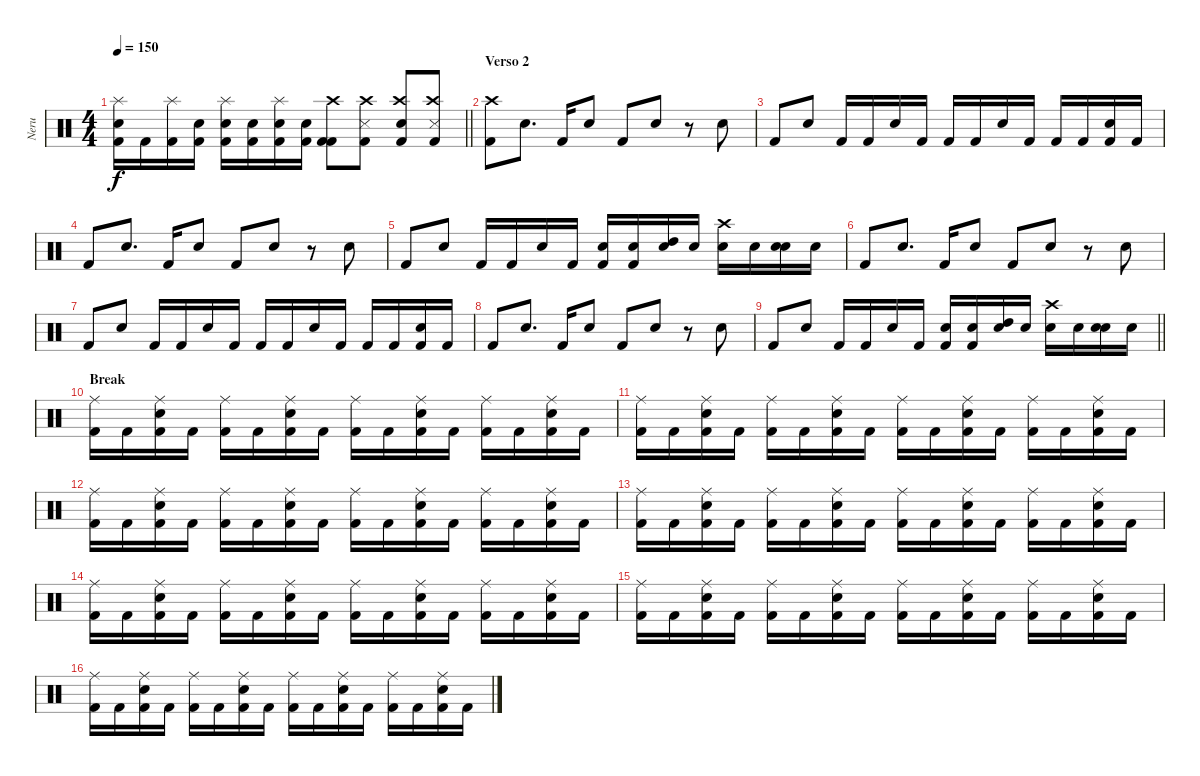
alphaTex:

\track ("Neru" "Neru") {instrument percussion}
\staff {score}
\articulation defaults
\ts (4 4)
\tempo 150
\clef neutral
\barLineRight lightlight
\ks c
("Kick (hit) 2" "Electric Snare (hit)" "Splash (hit)").16{dy f} "Kick (hit) 2".16 ("Kick (hit) 2" "Splash (hit)").16 ("Kick (hit) 2" "Electric Snare (hit)").16 ("Kick (hit) 2" "Electric Snare (hit)" "Splash (hit)").16 ("Kick (hit) 2" "Electric Snare (hit)").16 ("Kick (hit) 2" "Electric Snare (hit)" "Splash (hit)").16 ("Kick (hit) 2" "Electric Snare (hit)").16 ("Kick (hit) 2" "Kick (hit) 2" "Crash high (hit)").8 ("Kick (hit) 2" "Snare (side stick) 3" "Crash high (hit)").8 ("Kick (hit) 2" "Snare (hit) 2" "Crash high (hit)").8 ("Kick (hit) 2" "Snare (side stick) 3" "Crash high (hit)").8 |
\section ("" "Verso 2")
("Kick (hit) 2" "Crash high (hit)").8 "Electric Snare (hit)".8{d} "Kick (hit) 2".16 "Electric Snare (hit)".8 "Kick (hit) 2".8 "Electric Snare (hit)".8 r.8 "Electric Snare (hit)".8 |
"Kick (hit) 2".8 "Electric Snare (hit)".8 "Kick (hit) 2".16 "Kick (hit) 2".16 "Electric Snare (hit)".16 "Kick (hit) 2".16 "Kick (hit) 2".16 "Kick (hit) 2".16 "Electric Snare (hit)".16 "Kick (hit) 2".16 "Kick (hit) 2".16 "Kick (hit) 2".16 ("Kick (hit) 2" "Electric Snare (hit)").16 "Kick (hit) 2".16 |
"Kick (hit) 2".8 "Electric Snare (hit)".8{d} "Kick (hit) 2".16 "Electric Snare (hit)".8 "Kick (hit) 2".8 "Electric Snare (hit)".8 r.8 "Electric Snare (hit)".8 |
"Kick (hit) 2".8 "Electric Snare (hit)".8 "Kick (hit) 2".16 "Kick (hit) 2".16 "Electric Snare (hit)".16 "Kick (hit) 2".16 ("Snare (hit) 2" "Kick (hit) 2").16 ("Snare (hit) 2" "Kick (hit) 2").16 ("High Tom (hit)" "Electric Snare (hit)").16 "Snare (hit) 2".16 ("Snare (hit) 2" "Crash high (hit)").16 "Snare (hit) 2".16 ("Snare (hit) 2" "Electric Snare (hit)").16 "Snare (hit) 2".16 |
"Kick (hit) 2".8 "Electric Snare (hit)".8{d} "Kick (hit) 2".16 "Electric Snare (hit)".8 "Kick (hit) 2".8 "Electric Snare (hit)".8 r.8 "Electric Snare (hit)".8 |
"Kick (hit) 2".8 "Electric Snare (hit)".8 "Kick (hit) 2".16 "Kick (hit) 2".16 "Electric Snare (hit)".16 "Kick (hit) 2".16 "Kick (hit) 2".16 "Kick (hit) 2".16 "Electric Snare (hit)".16 "Kick (hit) 2".16 "Kick (hit) 2".16 "Kick (hit) 2".16 ("Kick (hit) 2" "Electric Snare (hit)").16 "Kick (hit) 2".16 |
"Kick (hit) 2".8 "Electric Snare (hit)".8{d} "Kick (hit) 2".16 "Electric Snare (hit)".8 "Kick (hit) 2".8 "Electric Snare (hit)".8 r.8 "Electric Snare (hit)".8 |
\barLineRight lightlight "Kick (hit) 2".8 "Electric Snare (hit)".8 "Kick (hit) 2".16 "Kick (hit) 2".16 "Electric Snare (hit)".16 "Kick (hit) 2".16
("Snare (hit) 2" "Kick (hit) 2").16 ("Snare (hit) 2" "Kick (hit) 2").16 ("High Tom (hit)" "Electric Snare (hit)").16 "Snare (hit) 2".16 ("Snare (hit) 2" "Crash high (hit)").16 "Snare (hit) 2".16 ("Snare (hit) 2" "Electric Snare (hit)").16 "Snare (hit) 2".16 |
\section ("" "Break")
("Kick (hit) 2" "Ride (middle)").16 "Kick (hit) 2".16 ("Kick (hit) 2" "Electric Snare (hit)" "Ride (middle)").16 "Kick (hit) 2".16 ("Kick (hit) 2" "Ride (middle)").16 "Kick (hit) 2".16 ("Kick (hit) 2" "Electric Snare (hit)" "Ride (middle)").16 "Kick (hit) 2".16 ("Kick (hit) 2" "Ride (middle)").16 "Kick (hit) 2".16 ("Kick (hit) 2" "Electric Snare (hit)" "Ride (middle)").16 "Kick (hit) 2".16 ("Kick (hit) 2" "Ride (middle)").16 "Kick (hit) 2".16 ("Kick (hit) 2" "Electric Snare (hit)" "Ride (middle)").16 "Kick (hit) 2".16 |
("Kick (hit) 2" "Ride (middle)").16 "Kick (hit) 2".16 ("Kick (hit) 2" "Electric Snare (hit)" "Ride (middle)").16 "Kick (hit) 2".16 ("Kick (hit) 2" "Ride (middle)").16 "Kick (hit) 2".16 ("Kick (hit) 2" "Electric Snare (hit)" "Ride (middle)").16 "Kick (hit) 2".16 ("Kick (hit) 2" "Ride (middle)").16 "Kick (hit) 2".16 ("Kick (hit) 2" "Electric Snare (hit)" "Ride (middle)").16 "Kick (hit) 2".16 ("Kick (hit) 2" "Ride (middle)").16 "Kick (hit) 2".16 ("Kick (hit) 2" "Electric Snare (hit)" "Ride (middle)").16 "Kick (hit) 2".16 |
("Kick (hit) 2" "Ride (middle)").16 "Kick (hit) 2".16 ("Kick (hit) 2" "Electric Snare (hit)" "Ride (middle)").16 "Kick (hit) 2".16 ("Kick (hit) 2" "Ride (middle)").16 "Kick (hit) 2".16 ("Kick (hit) 2" "Electric Snare (hit)" "Ride (middle)").16 "Kick (hit) 2".16 ("Kick (hit) 2" "Ride (middle)").16 "Kick (hit) 2".16 ("Kick (hit) 2" "Electric Snare (hit)" "Ride (middle)").16 "Kick (hit) 2".16 ("Kick (hit) 2" "Ride (middle)").16 "Kick (hit) 2".16 ("Kick (hit) 2" "Electric Snare (hit)" "Ride (middle)").16 "Kick (hit) 2".16 |
("Kick (hit) 2" "Ride (middle)").16 "Kick (hit) 2".16 ("Kick (hit) 2" "Electric Snare (hit)" "Ride (middle)").16 "Kick (hit) 2".16 ("Kick (hit) 2" "Ride (middle)").16 "Kick (hit) 2".16 ("Kick (hit) 2" "Electric Snare (hit)" "Ride (middle)").16 "Kick (hit) 2".16 ("Kick (hit) 2" "Ride (middle)").16 "Kick (hit) 2".16 ("Kick (hit) 2" "Electric Snare (hit)" "Ride (middle)").16 "Kick (hit) 2".16 ("Kick (hit) 2" "Ride (middle)").16 "Kick (hit) 2".16 ("Kick (hit) 2" "Electric Snare (hit)" "Ride (middle)").16 "Kick (hit) 2".16 |
("Kick (hit) 2" "Ride (middle)").16 "Kick (hit) 2".16 ("Kick (hit) 2" "Electric Snare (hit)" "Ride (middle)").16 "Kick (hit) 2".16 ("Kick (hit) 2" "Ride (middle)").16 "Kick (hit) 2".16 ("Kick (hit) 2" "Electric Snare (hit)" "Ride (middle)").16 "Kick (hit) 2".16 ("Kick (hit) 2" "Ride (middle)").16 "Kick (hit) 2".16 ("Kick (hit) 2" "Electric Snare (hit)" "Ride (middle)").16 "Kick (hit) 2".16 ("Kick (hit) 2" "Ride (middle)").16 "Kick (hit) 2".16 ("Kick (hit) 2" "Electric Snare (hit)" "Ride (middle)").16 "Kick (hit) 2".16 |
("Kick (hit) 2" "Ride (middle)").16 "Kick (hit) 2".16 ("Kick (hit) 2" "Electric Snare (hit)" "Ride (middle)").16 "Kick (hit) 2".16 ("Kick (hit) 2" "Ride (middle)").16 "Kick (hit) 2".16 ("Kick (hit) 2" "Electric Snare (hit)" "Ride (middle)").16 "Kick (hit) 2".16 ("Kick (hit) 2" "Ride (middle)").16 "Kick (hit) 2".16 ("Kick (hit) 2" "Electric Snare (hit)" "Ride (middle)").16 "Kick (hit) 2".16 ("Kick (hit) 2" "Ride (middle)").16 "Kick (hit) 2".16 ("Kick (hit) 2" "Electric Snare (hit)" "Ride (middle)").16 "Kick (hit) 2".16 |
("Kick (hit) 2" "Ride (middle)").16 "Kick (hit) 2".16 ("Kick (hit) 2" "Electric Snare (hit)" "Ride (middle)").16 "Kick (hit) 2".16 ("Kick (hit) 2" "Ride (middle)").16 "Kick (hit) 2".16 ("Kick (hit) 2" "Electric Snare (hit)" "Ride (middle)").16 "Kick (hit) 2".16 ("Kick (hit) 2" "Ride (middle)").16 "Kick (hit) 2".16 ("Kick (hit) 2" "Electric Snare (hit)" "Ride (middle)").16 "Kick (hit) 2".16 ("Kick (hit) 2" "Ride (middle)").16 "Kick (hit) 2".16 ("Kick (hit) 2" "Electric Snare (hit)" "Ride (middle)").16 "Kick (hit) 2".16
